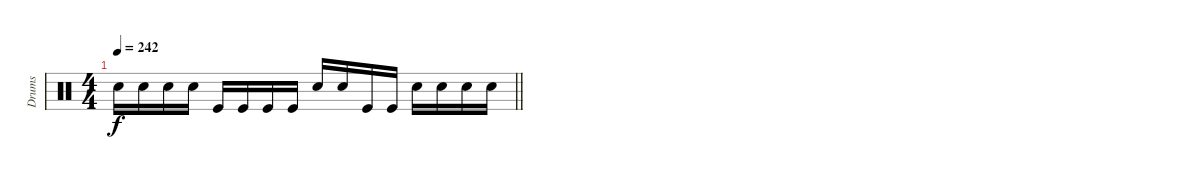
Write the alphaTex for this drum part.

\track ("Drums" "Drums") {instrument percussion}
\staff
\articulation defaults
\ts (4 4)
\tempo 242
\clef neutral
\barLineRight lightlight
\ks c "Electric Snare (hit)".16{dy f} "Electric Snare (hit)".16 "Electric Snare (hit)".16 "Electric Snare (hit)".16 "Kick (hit)".16 "Kick (hit)".16 "Kick (hit)".16 "Kick (hit)".16 "Electric Snare (hit)".16 "Electric Snare (hit)".16 "Kick (hit)".16 "Kick (hit)".16 "Electric Snare (hit)".16 "Electric Snare (hit)".16 "Electric Snare (hit)".16 "Electric Snare (hit)".16
